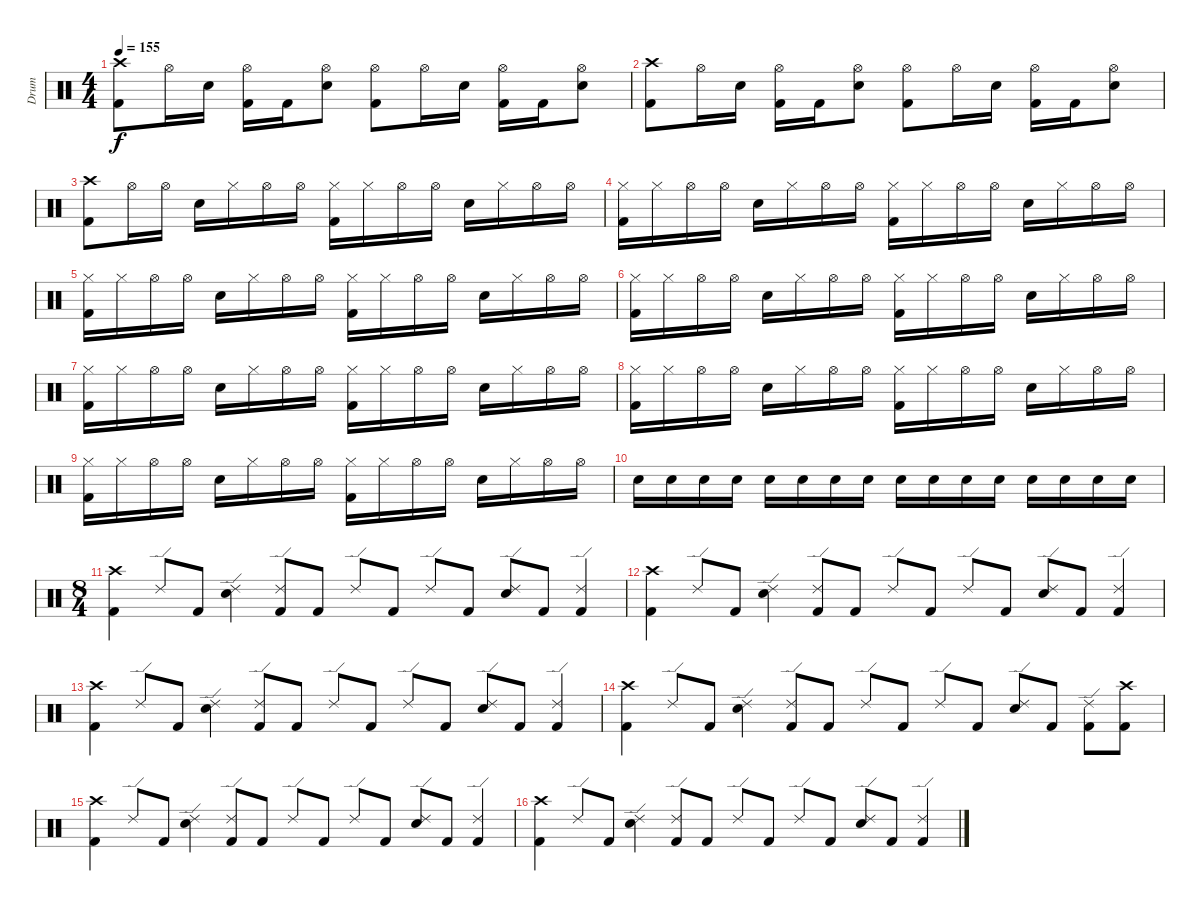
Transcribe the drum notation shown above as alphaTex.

\track ("Drum" "Drum") {instrument percussion}
\staff {score}
\articulation defaults
\ts (4 4)
\tempo 155
\clef neutral
\ks c
("Kick (hit) 2" "Crash high (hit)").8{dy f} "Hi-Hat (open)".16 "Electric Snare (hit)".16 ("Kick (hit) 2" "Hi-Hat (open)").16 "Kick (hit) 2".16 ("Electric Snare (hit)" "Hi-Hat (open)").8 ("Kick (hit) 2" "Hi-Hat (open)").8 "Hi-Hat (open)".16 "Electric Snare (hit)".16 ("Kick (hit) 2" "Hi-Hat (open)").16 "Kick (hit) 2".16 ("Electric Snare (hit)" "Hi-Hat (open)").8 |
("Kick (hit) 2" "Crash high (hit)").8 "Hi-Hat (open)".16 "Electric Snare (hit)".16 ("Kick (hit) 2" "Hi-Hat (open)").16 "Kick (hit) 2".16 ("Electric Snare (hit)" "Hi-Hat (open)").8 ("Kick (hit) 2" "Hi-Hat (open)").8 "Hi-Hat (open)".16 "Electric Snare (hit)".16 ("Kick (hit) 2" "Hi-Hat (open)").16 "Kick (hit) 2".16 ("Electric Snare (hit)" "Hi-Hat (open)").8 |
("Kick (hit) 2" "Crash high (hit)").8 "Hi-Hat (open)".16 "Hi-Hat (open)".16 "Electric Snare (hit)".16 "Hi-Hat (closed)".16 "Hi-Hat (open)".16 "Hi-Hat (open)".16 ("Kick (hit) 2" "Hi-Hat (closed)").16 "Hi-Hat (closed)".16 "Hi-Hat (open)".16 "Hi-Hat (open)".16 "Electric Snare (hit)".16 "Hi-Hat (closed)".16 "Hi-Hat (open)".16 "Hi-Hat (open)".16 |
("Kick (hit) 2" "Hi-Hat (closed)").16 "Hi-Hat (closed)".16 "Hi-Hat (open)".16 "Hi-Hat (open)".16 "Electric Snare (hit)".16 "Hi-Hat (closed)".16 "Hi-Hat (open)".16 "Hi-Hat (open)".16 ("Kick (hit) 2" "Hi-Hat (closed)").16 "Hi-Hat (closed)".16 "Hi-Hat (open)".16 "Hi-Hat (open)".16 "Electric Snare (hit)".16 "Hi-Hat (closed)".16 "Hi-Hat (open)".16 "Hi-Hat (open)".16 |
("Kick (hit) 2" "Hi-Hat (closed)").16 "Hi-Hat (closed)".16 "Hi-Hat (open)".16 "Hi-Hat (open)".16 "Electric Snare (hit)".16 "Hi-Hat (closed)".16 "Hi-Hat (open)".16 "Hi-Hat (open)".16 ("Kick (hit) 2" "Hi-Hat (closed)").16 "Hi-Hat (closed)".16 "Hi-Hat (open)".16 "Hi-Hat (open)".16 "Electric Snare (hit)".16 "Hi-Hat (closed)".16 "Hi-Hat (open)".16 "Hi-Hat (open)".16 |
("Kick (hit) 2" "Hi-Hat (closed)").16 "Hi-Hat (closed)".16 "Hi-Hat (open)".16 "Hi-Hat (open)".16 "Electric Snare (hit)".16 "Hi-Hat (closed)".16 "Hi-Hat (open)".16 "Hi-Hat (open)".16 ("Kick (hit) 2" "Hi-Hat (closed)").16 "Hi-Hat (closed)".16 "Hi-Hat (open)".16 "Hi-Hat (open)".16 "Electric Snare (hit)".16 "Hi-Hat (closed)".16 "Hi-Hat (open)".16 "Hi-Hat (open)".16 |
("Kick (hit) 2" "Hi-Hat (closed)").16 "Hi-Hat (closed)".16 "Hi-Hat (open)".16 "Hi-Hat (open)".16 "Electric Snare (hit)".16 "Hi-Hat (closed)".16 "Hi-Hat (open)".16 "Hi-Hat (open)".16 ("Kick (hit) 2" "Hi-Hat (closed)").16 "Hi-Hat (closed)".16 "Hi-Hat (open)".16 "Hi-Hat (open)".16 "Electric Snare (hit)".16 "Hi-Hat (closed)".16 "Hi-Hat (open)".16 "Hi-Hat (open)".16 |
("Kick (hit) 2" "Hi-Hat (closed)").16 "Hi-Hat (closed)".16 "Hi-Hat (open)".16 "Hi-Hat (open)".16 "Electric Snare (hit)".16 "Hi-Hat (closed)".16 "Hi-Hat (open)".16 "Hi-Hat (open)".16 ("Kick (hit) 2" "Hi-Hat (closed)").16 "Hi-Hat (closed)".16 "Hi-Hat (open)".16 "Hi-Hat (open)".16 "Electric Snare (hit)".16 "Hi-Hat (closed)".16 "Hi-Hat (open)".16 "Hi-Hat (open)".16 |
("Kick (hit) 2" "Hi-Hat (closed)").16 "Hi-Hat (closed)".16 "Hi-Hat (open)".16 "Hi-Hat (open)".16 "Electric Snare (hit)".16 "Hi-Hat (closed)".16 "Hi-Hat (open)".16 "Hi-Hat (open)".16 ("Kick (hit) 2" "Hi-Hat (closed)").16 "Hi-Hat (closed)".16 "Hi-Hat (open)".16 "Hi-Hat (open)".16 "Electric Snare (hit)".16 "Hi-Hat (closed)".16 "Hi-Hat (open)".16 "Hi-Hat (open)".16 |
"Electric Snare (hit)".16 "Electric Snare (hit)".16 "Electric Snare (hit)".16 "Electric Snare (hit)".16 "Electric Snare (hit)".16 "Electric Snare (hit)".16 "Electric Snare (hit)".16 "Electric Snare (hit)".16 "Electric Snare (hit)".16 "Electric Snare (hit)".16 "Electric Snare (hit)".16 "Electric Snare (hit)".16 "Electric Snare (hit)".16 "Electric Snare (hit)".16 "Electric Snare (hit)".16 "Electric Snare (hit)".16 |
\ts (8 4)
("Kick (hit) 2" "Crash high (hit)").4 "Ride (edge) 2".8 "Kick (hit) 2".8 ("Electric Snare (hit)" "Ride (edge) 2").4 ("Kick (hit) 2" "Ride (edge) 2").8 "Kick (hit) 2".8 "Ride (edge) 2".8 "Kick (hit) 2".8 "Ride (edge) 2".8 "Kick (hit) 2".8 ("Electric Snare (hit)" "Ride (edge) 2").8 "Kick (hit) 2".8 ("Kick (hit) 2" "Ride (edge) 2").4 |
("Kick (hit) 2" "Crash high (hit)").4 "Ride (edge) 2".8 "Kick (hit) 2".8 ("Electric Snare (hit)" "Ride (edge) 2").4 ("Kick (hit) 2" "Ride (edge) 2").8 "Kick (hit) 2".8 "Ride (edge) 2".8 "Kick (hit) 2".8 "Ride (edge) 2".8 "Kick (hit) 2".8 ("Electric Snare (hit)" "Ride (edge) 2").8 "Kick (hit) 2".8 ("Kick (hit) 2" "Ride (edge) 2").4 |
("Kick (hit) 2" "Crash high (hit)").4 "Ride (edge) 2".8 "Kick (hit) 2".8 ("Electric Snare (hit)" "Ride (edge) 2").4 ("Kick (hit) 2" "Ride (edge) 2").8 "Kick (hit) 2".8 "Ride (edge) 2".8 "Kick (hit) 2".8 "Ride (edge) 2".8 "Kick (hit) 2".8 ("Electric Snare (hit)" "Ride (edge) 2").8 "Kick (hit) 2".8 ("Kick (hit) 2" "Ride (edge) 2").4 |
("Kick (hit) 2" "Crash high (hit)").4 "Ride (edge) 2".8 "Kick (hit) 2".8 ("Electric Snare (hit)" "Ride (edge) 2").4 ("Kick (hit) 2" "Ride (edge) 2").8 "Kick (hit) 2".8 "Ride (edge) 2".8 "Kick (hit) 2".8 "Ride (edge) 2".8 "Kick (hit) 2".8 ("Electric Snare (hit)" "Ride (edge) 2").8 "Kick (hit) 2".8 ("Kick (hit) 2" "Ride (edge) 2").8 ("Kick (hit) 2" "Crash high (hit)").8 |
("Kick (hit) 2" "Crash high (hit)").4 "Ride (edge) 2".8 "Kick (hit) 2".8 ("Electric Snare (hit)" "Ride (edge) 2").4 ("Kick (hit) 2" "Ride (edge) 2").8 "Kick (hit) 2".8 "Ride (edge) 2".8 "Kick (hit) 2".8 "Ride (edge) 2".8 "Kick (hit) 2".8 ("Electric Snare (hit)" "Ride (edge) 2").8 "Kick (hit) 2".8 ("Kick (hit) 2" "Ride (edge) 2").4 |
("Kick (hit) 2" "Crash high (hit)").4 "Ride (edge) 2".8 "Kick (hit) 2".8 ("Electric Snare (hit)" "Ride (edge) 2").4 ("Kick (hit) 2" "Ride (edge) 2").8 "Kick (hit) 2".8 "Ride (edge) 2".8 "Kick (hit) 2".8 "Ride (edge) 2".8 "Kick (hit) 2".8 ("Electric Snare (hit)" "Ride (edge) 2").8 "Kick (hit) 2".8 ("Kick (hit) 2" "Ride (edge) 2").4
